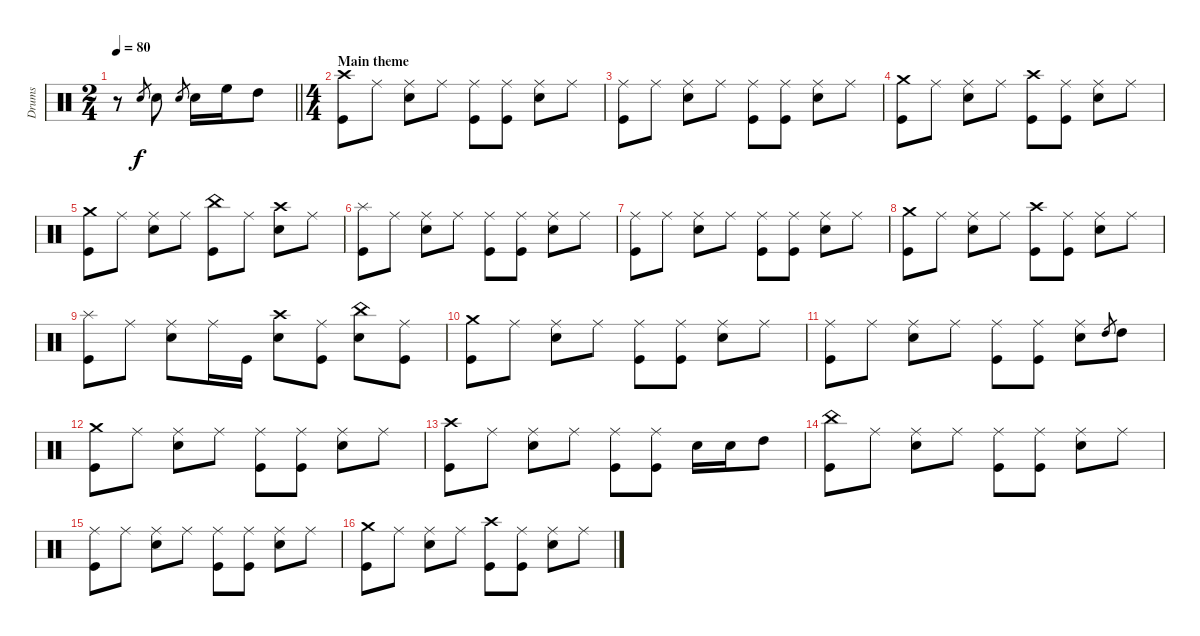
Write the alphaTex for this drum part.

\track ("Drums" "Drums") {instrument percussion}
\staff {score}
\articulation defaults
\ts (2 4)
\tempo 80
\clef neutral
\barLineRight lightlight
\ks c
r.8{dy f} "Snare (hit) 2".8{gr} "Snare (hit) 2".8 "Snare (hit) 2".8{gr} "Snare (hit) 2".16 "High Floor Tom (hit)".16 "High Tom (hit)".8 |
\ts (4 4)
\section ("" "Main theme")
("Crash high (hit)" "Kick (hit)").8 "Ride (middle)".8 ("Snare (hit) 2" "Ride (middle)").8 "Ride (middle)".8 ("Kick (hit)" "Ride (middle)").8 ("Kick (hit)" "Ride (middle)").8 ("Snare (hit) 2" "Ride (middle)").8 "Ride (middle)".8 |
("Ride (middle)" "Kick (hit)").8 "Ride (middle)".8 ("Snare (hit) 2" "Ride (middle)").8 "Ride (middle)".8 ("Kick (hit)" "Ride (middle)").8 ("Kick (hit)" "Ride (middle)").8 ("Snare (hit) 2" "Ride (middle)").8 "Ride (middle)".8 |
("Crash medium (hit)" "Kick (hit)").8 "Ride (middle)".8 ("Snare (hit) 2" "Ride (middle)").8 "Ride (middle)".8 ("Kick (hit)" "Crash high (hit)").8 ("Kick (hit)" "Ride (middle)").8 ("Snare (hit) 2" "Ride (middle)").8 "Ride (middle)".8 |
("Crash medium (hit)" "Kick (hit)").8 "Ride (middle)".8 ("Snare (hit) 2" "Ride (middle)").8 "Ride (middle)".8 ("Kick (hit)" "China (hit)").8 "Ride (middle)".8 ("Snare (hit) 2" "Crash high (hit)").8 "Ride (middle)".8 |
("Splash (hit)" "Kick (hit)").8 "Ride (middle)".8 ("Snare (hit) 2" "Ride (middle)").8 "Ride (middle)".8 ("Kick (hit)" "Ride (middle)").8 ("Kick (hit)" "Ride (middle)").8 ("Snare (hit) 2" "Ride (middle)").8 "Ride (middle)".8 |
("Ride (middle)" "Kick (hit)").8 "Ride (middle)".8 ("Snare (hit) 2" "Ride (middle)").8 "Ride (middle)".8 ("Kick (hit)" "Ride (middle)").8 ("Kick (hit)" "Ride (middle)").8 ("Snare (hit) 2" "Ride (middle)").8 "Ride (middle)".8 |
("Crash medium (hit)" "Kick (hit)").8 "Ride (middle)".8 ("Snare (hit) 2" "Ride (middle)").8 "Ride (middle)".8 ("Kick (hit)" "Crash high (hit)").8 ("Kick (hit)" "Ride (middle)").8 ("Snare (hit) 2" "Ride (middle)").8 "Ride (middle)".8 |
("Splash (hit)" "Kick (hit)").8 "Ride (middle)".8 ("Snare (hit) 2" "Ride (middle)").8 "Ride (middle)".16 "Kick (hit)".16 ("Snare (hit) 2" "Crash high (hit)").8 ("Kick (hit)" "Ride (middle)").8 ("Snare (hit) 2" "China (hit)").8 ("Kick (hit)" "Ride (middle)").8 |
("Crash medium (hit)" "Kick (hit)").8 "Ride (middle)".8 ("Snare (hit) 2" "Ride (middle)").8 "Ride (middle)".8 ("Kick (hit)" "Ride (middle)").8 ("Kick (hit)" "Ride (middle)").8 ("Snare (hit) 2" "Ride (middle)").8 "Ride (middle)".8 |
("Ride (middle)" "Kick (hit)").8 "Ride (middle)".8 ("Snare (hit) 2" "Ride (middle)").8 "Ride (middle)".8 ("Kick (hit)" "Ride (middle)").8 ("Kick (hit)" "Ride (middle)").8 ("Snare (hit) 2" "Ride (middle)").8 "High Tom (hit)".8{gr} "High Tom (hit)".8 |
("Crash medium (hit)" "Kick (hit)").8 "Ride (middle)".8 ("Snare (hit) 2" "Ride (middle)").8 "Ride (middle)".8 ("Kick (hit)" "Ride (middle)").8 ("Kick (hit)" "Ride (middle)").8 ("Snare (hit) 2" "Ride (middle)").8 "Ride (middle)".8 |
("Crash high (hit)" "Kick (hit)").8 "Ride (middle)".8 ("Snare (hit) 2" "Ride (middle)").8 "Ride (middle)".8 ("Kick (hit)" "Ride (middle)").8 ("Kick (hit)" "Ride (middle)").8 "Snare (hit) 2".16 "Snare (hit) 2".16 "High Tom (hit)".8 |
("China (hit)" "Kick (hit)").8 "Ride (middle)".8 ("Snare (hit) 2" "Ride (middle)").8 "Ride (middle)".8 ("Kick (hit)" "Ride (middle)").8 ("Kick (hit)" "Ride (middle)").8 ("Snare (hit) 2" "Ride (middle)").8 "Ride (middle)".8 |
("Ride (middle)" "Kick (hit)").8 "Ride (middle)".8 ("Snare (hit) 2" "Ride (middle)").8 "Ride (middle)".8 ("Kick (hit)" "Ride (middle)").8 ("Kick (hit)" "Ride (middle)").8 ("Snare (hit) 2" "Ride (middle)").8 "Ride (middle)".8 |
("Crash medium (hit)" "Kick (hit)").8 "Ride (middle)".8 ("Snare (hit) 2" "Ride (middle)").8 "Ride (middle)".8 ("Kick (hit)" "Crash high (hit)").8 ("Kick (hit)" "Ride (middle)").8 ("Snare (hit) 2" "Ride (middle)").8 "Ride (middle)".8
